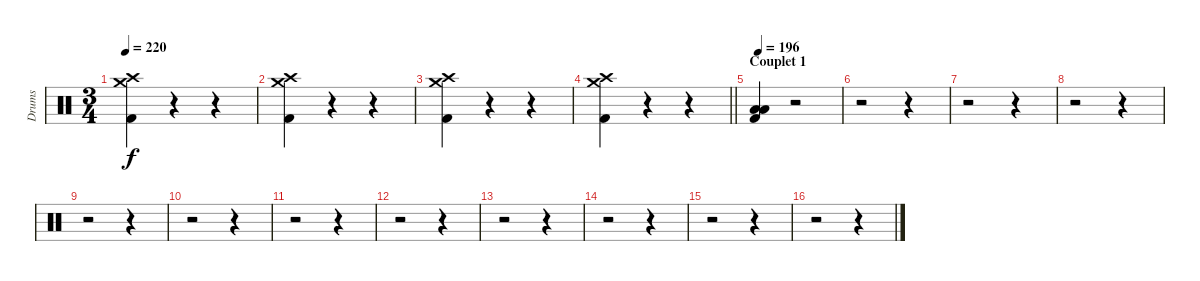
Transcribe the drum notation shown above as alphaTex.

\track ("Drums" "Drums") {instrument percussion}
\staff {score}
\articulation defaults
\ts (3 4)
\tempo 220
\clef neutral
\ks c
("Crash medium (hit)" "Crash high (hit)" "Kick (hit) 2").4{dy f} r.4 r.4 |
("Crash medium (hit)" "Crash high (hit)" "Kick (hit) 2").4 r.4 r.4 |
("Crash medium (hit)" "Crash high (hit)" "Kick (hit) 2").4 r.4 r.4 |
\barLineRight lightlight
("Crash medium (hit)" "Crash high (hit)" "Kick (hit) 2").4 r.4 r.4 |
\section ("" "Couplet 1")
\tempo 196
("Low Tom (hit)" "Low Floor Tom (hit)" "Kick (hit) 2").4 r.2 |
r.2 r.4 |
r.2 r.4 |
r.2 r.4 |
r.2 r.4 |
r.2 r.4 |
r.2 r.4 |
r.2 r.4 |
r.2 r.4 |
r.2 r.4 |
r.2 r.4 |
r.2 r.4
